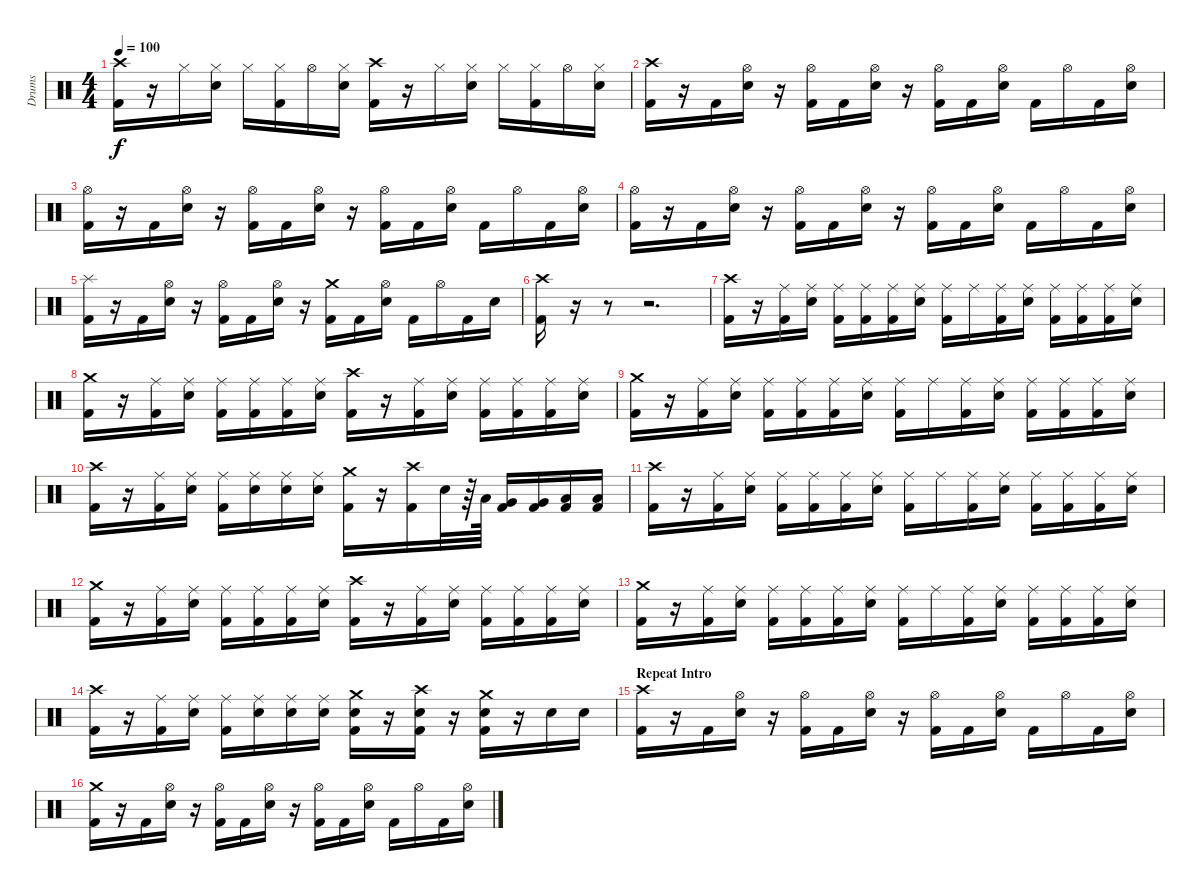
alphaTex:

\track ("Drums" "Drums") {instrument percussion}
\staff {score}
\articulation defaults
\ts (4 4)
\tempo 100
\clef neutral
\ks c
("Crash high (hit)" "Kick (hit) 2").16{dy f} r.16 "Hi-Hat (closed)".16 ("Hi-Hat (closed)" "Snare (hit) 2").16 "Hi-Hat (closed)".16 ("Hi-Hat (closed)" "Kick (hit) 2").16 "Hi-Hat (open)".16 ("Hi-Hat (closed)" "Snare (hit) 2").16 ("Crash high (hit)" "Kick (hit) 2").16 r.16 "Hi-Hat (closed)".16 ("Hi-Hat (closed)" "Snare (hit) 2").16 "Hi-Hat (closed)".16 ("Hi-Hat (closed)" "Kick (hit) 2").16 "Hi-Hat (open)".16 ("Hi-Hat (closed)" "Snare (hit) 2").16 |
("Crash high (hit)" "Kick (hit) 2").16 r.16 "Kick (hit) 2".16 ("Hi-Hat (open)" "Snare (hit) 2").16 r.16 ("Hi-Hat (open)" "Kick (hit) 2").16 "Kick (hit) 2".16 ("Hi-Hat (open)" "Snare (hit) 2").16 r.16 ("Hi-Hat (open)" "Kick (hit) 2").16 "Kick (hit) 2".16 ("Hi-Hat (open)" "Snare (hit) 2").16 "Kick (hit) 2".16 "Hi-Hat (open)".16 "Kick (hit) 2".16 ("Hi-Hat (open)" "Snare (hit) 2").16 |
("Hi-Hat (open)" "Kick (hit) 2").16 r.16 "Kick (hit) 2".16 ("Hi-Hat (open)" "Snare (hit) 2").16 r.16 ("Hi-Hat (open)" "Kick (hit) 2").16 "Kick (hit) 2".16 ("Hi-Hat (open)" "Snare (hit) 2").16 r.16 ("Hi-Hat (open)" "Kick (hit) 2").16 "Kick (hit) 2".16 ("Hi-Hat (open)" "Snare (hit) 2").16 "Kick (hit) 2".16 "Hi-Hat (open)".16 "Kick (hit) 2".16 ("Hi-Hat (open)" "Snare (hit) 2").16 |
("Hi-Hat (open)" "Kick (hit) 2").16 r.16 "Kick (hit) 2".16 ("Hi-Hat (open)" "Snare (hit) 2").16 r.16 ("Hi-Hat (open)" "Kick (hit) 2").16 "Kick (hit) 2".16 ("Hi-Hat (open)" "Snare (hit) 2").16 r.16 ("Hi-Hat (open)" "Kick (hit) 2").16 "Kick (hit) 2".16 ("Hi-Hat (open)" "Snare (hit) 2").16 "Kick (hit) 2".16 "Hi-Hat (open)".16 "Kick (hit) 2".16 ("Hi-Hat (open)" "Snare (hit) 2").16 |
("Splash (hit)" "Kick (hit) 2").16 r.16 "Kick (hit) 2".16 ("Hi-Hat (open)" "Snare (hit) 2").16 r.16 ("Hi-Hat (open)" "Kick (hit) 2").16 "Kick (hit) 2".16 ("Hi-Hat (open)" "Snare (hit) 2").16 r.16 ("Crash medium (hit)" "Kick (hit) 2").16 "Kick (hit) 2".16 ("Hi-Hat (open)" "Snare (hit) 2").16 "Kick (hit) 2".16 "Hi-Hat (open)".16 "Kick (hit) 2".16 "Snare (hit) 2".16 |
("Crash high (hit)" "Kick (hit) 2").16 r.16 r.8 r.2{d} |
("Crash high (hit)" "Kick (hit) 2").16 r.16 ("Ride (middle)" "Kick (hit) 2").16 ("Ride (middle)" "Snare (hit) 2").16 ("Ride (middle)" "Kick (hit) 2").16 ("Ride (middle)" "Kick (hit) 2").16 ("Ride (middle)" "Kick (hit) 2").16 ("Ride (middle)" "Snare (hit) 2").16 ("Ride (middle)" "Kick (hit) 2").16 "Ride (middle)".16 ("Ride (middle)" "Kick (hit) 2").16 ("Ride (middle)" "Snare (hit) 2").16 ("Ride (middle)" "Kick (hit) 2").16 ("Ride (middle)" "Kick (hit) 2").16 ("Ride (middle)" "Kick (hit) 2").16 ("Ride (middle)" "Snare (hit) 2").16 |
("Crash medium (hit)" "Kick (hit) 2").16 r.16 ("Ride (middle)" "Kick (hit) 2").16 ("Ride (middle)" "Snare (hit) 2").16 ("Ride (middle)" "Kick (hit) 2").16 ("Ride (middle)" "Kick (hit) 2").16 ("Ride (middle)" "Kick (hit) 2").16 ("Ride (middle)" "Snare (hit) 2").16 ("Crash high (hit)" "Kick (hit) 2").16 r.16 ("Ride (middle)" "Kick (hit) 2").16 ("Ride (middle)" "Snare (hit) 2").16 ("Ride (middle)" "Kick (hit) 2").16 ("Ride (middle)" "Kick (hit) 2").16 ("Ride (middle)" "Kick (hit) 2").16 ("Ride (middle)" "Snare (hit) 2").16 |
("Crash medium (hit)" "Kick (hit) 2").16 r.16 ("Ride (middle)" "Kick (hit) 2").16 ("Ride (middle)" "Snare (hit) 2").16 ("Ride (middle)" "Kick (hit) 2").16 ("Ride (middle)" "Kick (hit) 2").16 ("Ride (middle)" "Kick (hit) 2").16 ("Ride (middle)" "Snare (hit) 2").16 ("Ride (middle)" "Kick (hit) 2").16 "Ride (middle)".16 ("Ride (middle)" "Kick (hit) 2").16 ("Ride (middle)" "Snare (hit) 2").16 ("Ride (middle)" "Kick (hit) 2").16 ("Ride (middle)" "Kick (hit) 2").16 ("Ride (middle)" "Kick (hit) 2").16 ("Ride (middle)" "Snare (hit) 2").16 |
("Crash high (hit)" "Kick (hit) 2").16 r.16 ("Ride (middle)" "Kick (hit) 2").16 ("Ride (middle)" "Snare (hit) 2").16 ("Ride (middle)" "Kick (hit) 2").16 ("Ride (middle)" "Snare (hit) 2").16 ("Ride (middle)" "Snare (hit) 2").16 ("Ride (middle)" "Snare (hit) 2").16 ("Crash medium (hit)" "Kick (hit) 2").16 r.16 ("Crash high (hit)" "Kick (hit) 2").16 "Snare (hit) 2".32 r.64 "Low Floor Tom (hit)".64 ("Very Low Tom (hit)" "Kick (hit) 2").16 ("Very Low Tom (hit)" "Kick (hit) 2").16 ("Low Floor Tom (hit)" "Kick (hit) 2").16 ("Low Floor Tom (hit)" "Kick (hit) 2").16 |
("Crash high (hit)" "Kick (hit) 2").16 r.16 ("Ride (middle)" "Kick (hit) 2").16 ("Ride (middle)" "Snare (hit) 2").16 ("Ride (middle)" "Kick (hit) 2").16 ("Ride (middle)" "Kick (hit) 2").16 ("Ride (middle)" "Kick (hit) 2").16 ("Ride (middle)" "Snare (hit) 2").16 ("Ride (middle)" "Kick (hit) 2").16 "Ride (middle)".16 ("Ride (middle)" "Kick (hit) 2").16 ("Ride (middle)" "Snare (hit) 2").16 ("Ride (middle)" "Kick (hit) 2").16 ("Ride (middle)" "Kick (hit) 2").16 ("Ride (middle)" "Kick (hit) 2").16 ("Ride (middle)" "Snare (hit) 2").16 |
("Crash medium (hit)" "Kick (hit) 2").16 r.16 ("Ride (middle)" "Kick (hit) 2").16 ("Ride (middle)" "Snare (hit) 2").16 ("Ride (middle)" "Kick (hit) 2").16 ("Ride (middle)" "Kick (hit) 2").16 ("Ride (middle)" "Kick (hit) 2").16 ("Ride (middle)" "Snare (hit) 2").16 ("Crash high (hit)" "Kick (hit) 2").16 r.16 ("Ride (middle)" "Kick (hit) 2").16 ("Ride (middle)" "Snare (hit) 2").16 ("Ride (middle)" "Kick (hit) 2").16 ("Ride (middle)" "Kick (hit) 2").16 ("Ride (middle)" "Kick (hit) 2").16 ("Ride (middle)" "Snare (hit) 2").16 |
("Crash medium (hit)" "Kick (hit) 2").16 r.16 ("Ride (middle)" "Kick (hit) 2").16 ("Ride (middle)" "Snare (hit) 2").16 ("Ride (middle)" "Kick (hit) 2").16 ("Ride (middle)" "Kick (hit) 2").16 ("Ride (middle)" "Kick (hit) 2").16 ("Ride (middle)" "Snare (hit) 2").16 ("Ride (middle)" "Kick (hit) 2").16 "Ride (middle)".16 ("Ride (middle)" "Kick (hit) 2").16 ("Ride (middle)" "Snare (hit) 2").16 ("Ride (middle)" "Kick (hit) 2").16 ("Ride (middle)" "Kick (hit) 2").16 ("Ride (middle)" "Kick (hit) 2").16 ("Ride (middle)" "Snare (hit) 2").16 |
("Crash high (hit)" "Kick (hit) 2").16 r.16 ("Ride (middle)" "Kick (hit) 2").16 ("Ride (middle)" "Snare (hit) 2").16 ("Ride (middle)" "Kick (hit) 2").16 ("Ride (middle)" "Snare (hit) 2").16 ("Ride (middle)" "Snare (hit) 2").16 ("Ride (middle)" "Snare (hit) 2").16 ("Crash medium (hit)" "Snare (hit) 2" "Kick (hit) 2").16 r.16 ("Crash high (hit)" "Snare (hit) 2" "Kick (hit) 2").16 r.16 ("Crash medium (hit)" "Snare (hit) 2" "Kick (hit) 2").16 r.16 "Snare (hit) 2".16 "Snare (hit) 2".16 |
\section ("" "Repeat Intro")
("Crash high (hit)" "Kick (hit) 2").16 r.16 "Kick (hit) 2".16 ("Hi-Hat (open)" "Snare (hit) 2").16 r.16 ("Hi-Hat (open)" "Kick (hit) 2").16 "Kick (hit) 2".16 ("Hi-Hat (open)" "Snare (hit) 2").16 r.16 ("Hi-Hat (open)" "Kick (hit) 2").16 "Kick (hit) 2".16 ("Hi-Hat (open)" "Snare (hit) 2").16 "Kick (hit) 2".16 "Hi-Hat (open)".16 "Kick (hit) 2".16 ("Hi-Hat (open)" "Snare (hit) 2").16 |
("Crash medium (hit)" "Kick (hit) 2").16 r.16 "Kick (hit) 2".16 ("Hi-Hat (open)" "Snare (hit) 2").16 r.16 ("Hi-Hat (open)" "Kick (hit) 2").16 "Kick (hit) 2".16 ("Hi-Hat (open)" "Snare (hit) 2").16 r.16 ("Hi-Hat (open)" "Kick (hit) 2").16 "Kick (hit) 2".16 ("Hi-Hat (open)" "Snare (hit) 2").16 "Kick (hit) 2".16 "Hi-Hat (open)".16 "Kick (hit) 2".16 ("Hi-Hat (open)" "Snare (hit) 2").16
